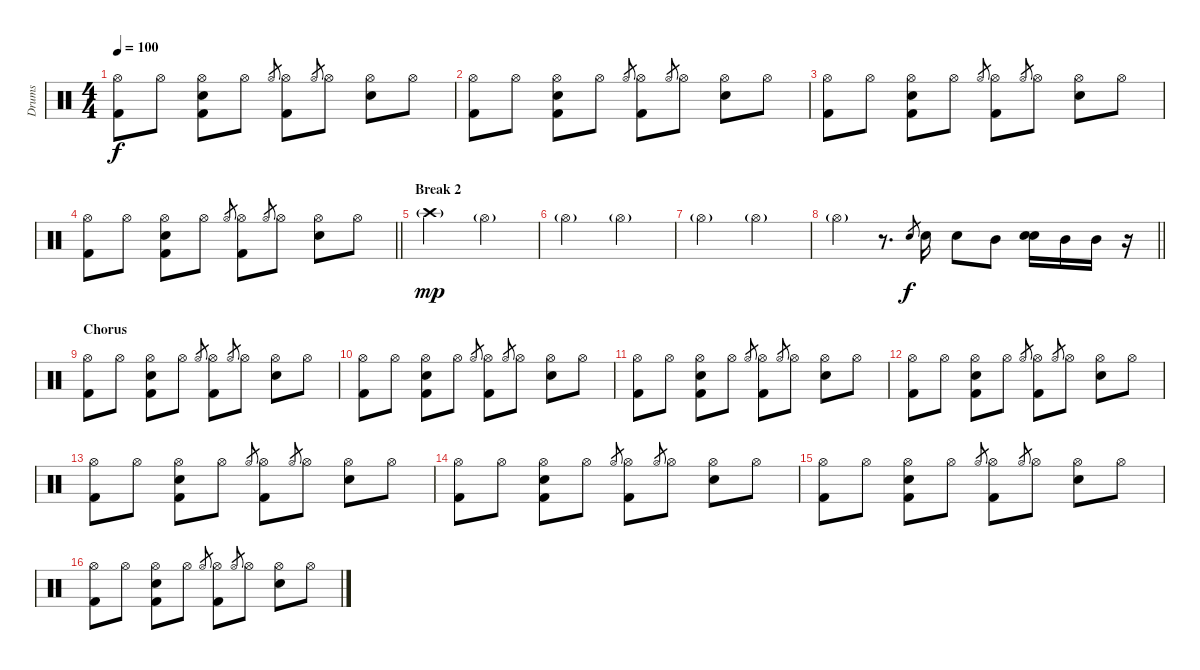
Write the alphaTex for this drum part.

\track ("Drums" "Drums") {instrument percussion}
\staff {score}
\articulation defaults
\ts (4 4)
\tempo 100
\clef neutral
\ks c
("Hi-Hat (open)" "Kick (hit) 2").8{dy f} "Hi-Hat (open)".8 ("Electric Snare (hit)" "Hi-Hat (open)" "Kick (hit) 2").8 "Hi-Hat (open)".8 "Hi-Hat (open)".8{gr} ("Hi-Hat (open)" "Kick (hit) 2").8 "Hi-Hat (open)".8{gr} "Hi-Hat (open)".8 ("Electric Snare (hit)" "Hi-Hat (open)").8 "Hi-Hat (open)".8 |
("Hi-Hat (open)" "Kick (hit) 2").8 "Hi-Hat (open)".8 ("Electric Snare (hit)" "Hi-Hat (open)" "Kick (hit) 2").8 "Hi-Hat (open)".8 "Hi-Hat (open)".8{gr} ("Hi-Hat (open)" "Kick (hit) 2").8 "Hi-Hat (open)".8{gr} "Hi-Hat (open)".8 ("Electric Snare (hit)" "Hi-Hat (open)").8 "Hi-Hat (open)".8 |
("Hi-Hat (open)" "Kick (hit) 2").8 "Hi-Hat (open)".8 ("Electric Snare (hit)" "Hi-Hat (open)" "Kick (hit) 2").8 "Hi-Hat (open)".8 "Hi-Hat (open)".8{gr} ("Hi-Hat (open)" "Kick (hit) 2").8 "Hi-Hat (open)".8{gr} "Hi-Hat (open)".8 ("Electric Snare (hit)" "Hi-Hat (open)").8 "Hi-Hat (open)".8 |
\barLineRight lightlight
("Hi-Hat (open)" "Kick (hit) 2").8 "Hi-Hat (open)".8 ("Electric Snare (hit)" "Hi-Hat (open)" "Kick (hit) 2").8 "Hi-Hat (open)".8 "Hi-Hat (open)".8{gr} ("Hi-Hat (open)" "Kick (hit) 2").8 "Hi-Hat (open)".8{gr} "Hi-Hat (open)".8 ("Electric Snare (hit)" "Hi-Hat (open)").8 "Hi-Hat (open)".8 |
\section ("" "Break 2")
"Crash high (hit)"{g}.2{dy mp} "Hi-Hat (open)"{g}.2 |
"Hi-Hat (open)"{g}.2 "Hi-Hat (open)"{g}.2 |
"Hi-Hat (open)"{g}.2 "Hi-Hat (open)"{g}.2 |
\barLineRight lightlight "Hi-Hat (open)"{g}.4
r.8{d} "Electric Snare (hit)".8{gr dy f} "Electric Snare (hit)".16 "Electric Snare (hit)".8 "Mid Tom (hit)".8 ("Electric Snare (hit)" "Electric Snare (hit)").16 "Mid Tom (hit)".16 "Mid Tom (hit)".16 r.16 |
\section ("" "Chorus")
("Hi-Hat (open)" "Kick (hit) 2").8 "Hi-Hat (open)".8 ("Electric Snare (hit)" "Hi-Hat (open)" "Kick (hit) 2").8 "Hi-Hat (open)".8 "Hi-Hat (open)".8{gr} ("Hi-Hat (open)" "Kick (hit) 2").8 "Hi-Hat (open)".8{gr} "Hi-Hat (open)".8 ("Electric Snare (hit)" "Hi-Hat (open)").8 "Hi-Hat (open)".8 |
("Hi-Hat (open)" "Kick (hit) 2").8 "Hi-Hat (open)".8 ("Electric Snare (hit)" "Hi-Hat (open)" "Kick (hit) 2").8 "Hi-Hat (open)".8 "Hi-Hat (open)".8{gr} ("Hi-Hat (open)" "Kick (hit) 2").8 "Hi-Hat (open)".8{gr} "Hi-Hat (open)".8 ("Electric Snare (hit)" "Hi-Hat (open)").8 "Hi-Hat (open)".8 |
("Hi-Hat (open)" "Kick (hit) 2").8 "Hi-Hat (open)".8 ("Electric Snare (hit)" "Hi-Hat (open)" "Kick (hit) 2").8 "Hi-Hat (open)".8 "Hi-Hat (open)".8{gr} ("Hi-Hat (open)" "Kick (hit) 2").8 "Hi-Hat (open)".8{gr} "Hi-Hat (open)".8 ("Electric Snare (hit)" "Hi-Hat (open)").8 "Hi-Hat (open)".8 |
("Hi-Hat (open)" "Kick (hit) 2").8 "Hi-Hat (open)".8 ("Electric Snare (hit)" "Hi-Hat (open)" "Kick (hit) 2").8 "Hi-Hat (open)".8 "Hi-Hat (open)".8{gr} ("Hi-Hat (open)" "Kick (hit) 2").8 "Hi-Hat (open)".8{gr} "Hi-Hat (open)".8 ("Electric Snare (hit)" "Hi-Hat (open)").8 "Hi-Hat (open)".8 |
("Hi-Hat (open)" "Kick (hit) 2").8 "Hi-Hat (open)".8 ("Electric Snare (hit)" "Hi-Hat (open)" "Kick (hit) 2").8 "Hi-Hat (open)".8 "Hi-Hat (open)".8{gr} ("Hi-Hat (open)" "Kick (hit) 2").8 "Hi-Hat (open)".8{gr} "Hi-Hat (open)".8 ("Electric Snare (hit)" "Hi-Hat (open)").8 "Hi-Hat (open)".8 |
("Hi-Hat (open)" "Kick (hit) 2").8 "Hi-Hat (open)".8 ("Electric Snare (hit)" "Hi-Hat (open)" "Kick (hit) 2").8 "Hi-Hat (open)".8 "Hi-Hat (open)".8{gr} ("Hi-Hat (open)" "Kick (hit) 2").8 "Hi-Hat (open)".8{gr} "Hi-Hat (open)".8 ("Electric Snare (hit)" "Hi-Hat (open)").8 "Hi-Hat (open)".8 |
("Hi-Hat (open)" "Kick (hit) 2").8 "Hi-Hat (open)".8 ("Electric Snare (hit)" "Hi-Hat (open)" "Kick (hit) 2").8 "Hi-Hat (open)".8 "Hi-Hat (open)".8{gr} ("Hi-Hat (open)" "Kick (hit) 2").8 "Hi-Hat (open)".8{gr} "Hi-Hat (open)".8 ("Electric Snare (hit)" "Hi-Hat (open)").8 "Hi-Hat (open)".8 |
("Hi-Hat (open)" "Kick (hit) 2").8 "Hi-Hat (open)".8 ("Electric Snare (hit)" "Hi-Hat (open)" "Kick (hit) 2").8 "Hi-Hat (open)".8 "Hi-Hat (open)".8{gr} ("Hi-Hat (open)" "Kick (hit) 2").8 "Hi-Hat (open)".8{gr} "Hi-Hat (open)".8 ("Electric Snare (hit)" "Hi-Hat (open)").8 "Hi-Hat (open)".8
